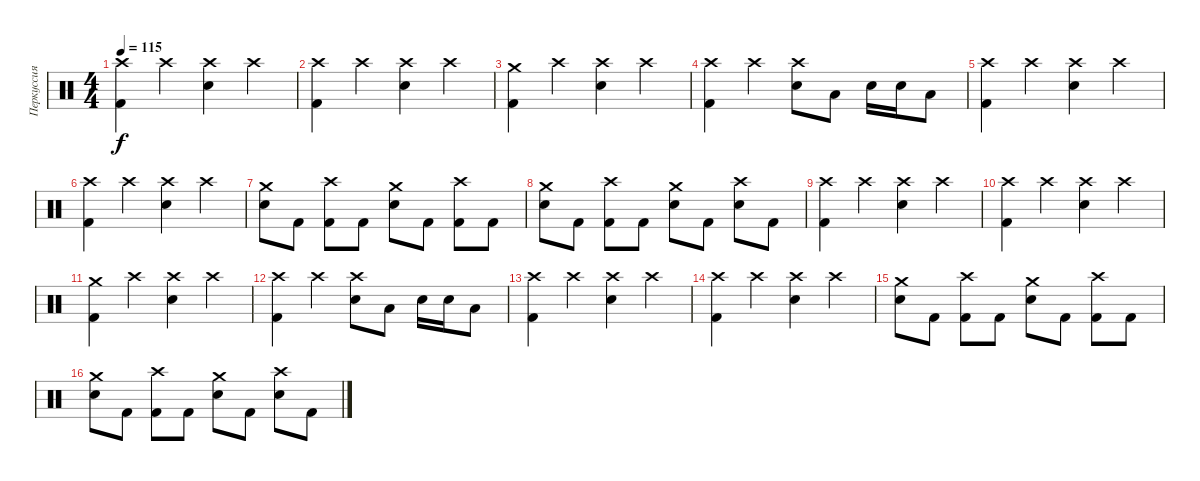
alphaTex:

\track ("Перкуссия" "Перкуссия") {instrument percussion}
\staff {score}
\articulation defaults
\ts (4 4)
\tempo 115
\clef neutral
\ks c
("Crash high (hit)" "Kick (hit) 2").4{dy f} "Crash high (hit)".4 ("Crash high (hit)" "Snare (hit) 2").4 "Crash high (hit)".4 |
("Crash high (hit)" "Kick (hit) 2").4 "Crash high (hit)".4 ("Crash high (hit)" "Snare (hit) 2").4 "Crash high (hit)".4 |
("Crash medium (hit)" "Kick (hit) 2").4 "Crash high (hit)".4 ("Crash high (hit)" "Snare (hit) 2").4 "Crash high (hit)".4 |
("Crash high (hit)" "Kick (hit) 2").4 "Crash high (hit)".4 ("Crash high (hit)" "Snare (hit) 2").8 "Low Tom (hit)".8 "Snare (hit) 2".16 "Snare (hit) 2".16 "Low Tom (hit)".8 |
("Crash high (hit)" "Kick (hit) 2").4 "Crash high (hit)".4 ("Crash high (hit)" "Snare (hit) 2").4 "Crash high (hit)".4 |
("Crash high (hit)" "Kick (hit) 2").4 "Crash high (hit)".4 ("Crash high (hit)" "Snare (hit) 2").4 "Crash high (hit)".4 |
("Crash medium (hit)" "Snare (hit) 2").8 "Kick (hit) 2".8 ("Crash high (hit)" "Kick (hit) 2").8 "Kick (hit) 2".8 ("Crash medium (hit)" "Snare (hit) 2").8 "Kick (hit) 2".8 ("Crash high (hit)" "Kick (hit) 2").8 "Kick (hit) 2".8 |
("Crash medium (hit)" "Snare (hit) 2").8 "Kick (hit) 2".8 ("Crash high (hit)" "Kick (hit) 2").8 "Kick (hit) 2".8 ("Crash medium (hit)" "Snare (hit) 2").8 "Kick (hit) 2".8 ("Crash high (hit)" "Snare (hit) 2").8 "Kick (hit) 2".8 |
("Crash high (hit)" "Kick (hit) 2").4 "Crash high (hit)".4 ("Crash high (hit)" "Snare (hit) 2").4 "Crash high (hit)".4 |
("Crash high (hit)" "Kick (hit) 2").4 "Crash high (hit)".4 ("Crash high (hit)" "Snare (hit) 2").4 "Crash high (hit)".4 |
("Crash medium (hit)" "Kick (hit) 2").4 "Crash high (hit)".4 ("Crash high (hit)" "Snare (hit) 2").4 "Crash high (hit)".4 |
("Crash high (hit)" "Kick (hit) 2").4 "Crash high (hit)".4 ("Crash high (hit)" "Snare (hit) 2").8 "Low Tom (hit)".8 "Snare (hit) 2".16 "Snare (hit) 2".16 "Low Tom (hit)".8 |
("Crash high (hit)" "Kick (hit) 2").4 "Crash high (hit)".4 ("Crash high (hit)" "Snare (hit) 2").4 "Crash high (hit)".4 |
("Crash high (hit)" "Kick (hit) 2").4 "Crash high (hit)".4 ("Crash high (hit)" "Snare (hit) 2").4 "Crash high (hit)".4 |
("Crash medium (hit)" "Snare (hit) 2").8 "Kick (hit) 2".8 ("Crash high (hit)" "Kick (hit) 2").8 "Kick (hit) 2".8 ("Crash medium (hit)" "Snare (hit) 2").8 "Kick (hit) 2".8 ("Crash high (hit)" "Kick (hit) 2").8 "Kick (hit) 2".8 |
("Crash medium (hit)" "Snare (hit) 2").8 "Kick (hit) 2".8 ("Crash high (hit)" "Kick (hit) 2").8 "Kick (hit) 2".8 ("Crash medium (hit)" "Snare (hit) 2").8 "Kick (hit) 2".8 ("Crash high (hit)" "Snare (hit) 2").8 "Kick (hit) 2".8
